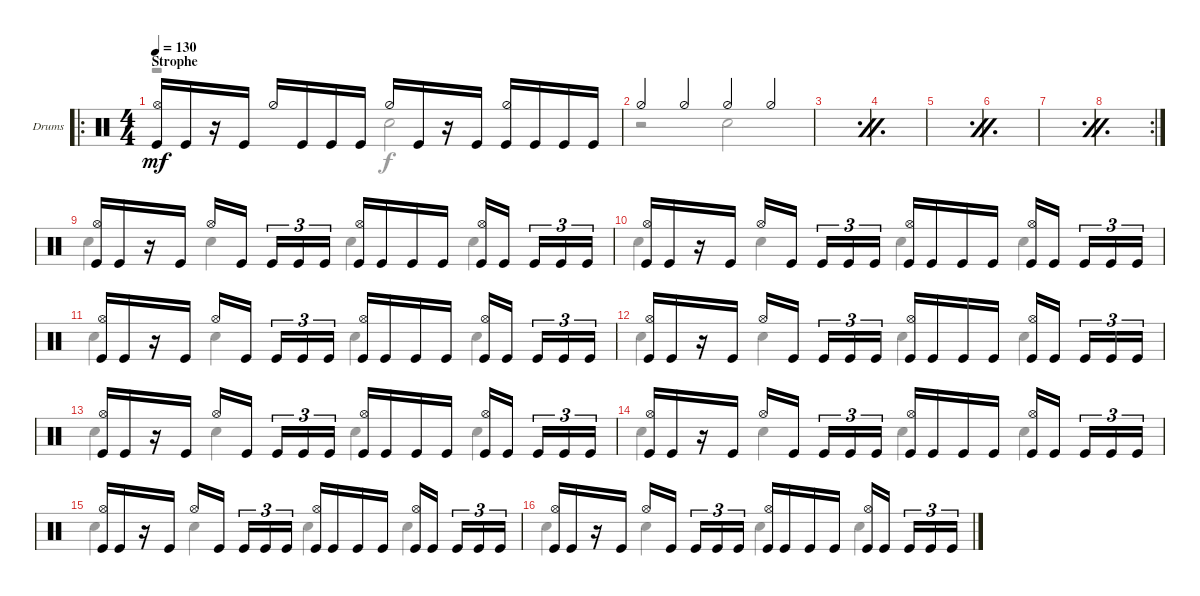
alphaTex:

\bracketExtendMode groupsimilarinstruments
\firstSystemTrackNameOrientation horizontal
\otherSystemsTrackNameOrientation horizontal
\track ("Drumkit" "Drums") {instrument percussion}
\staff {score}
\articulation defaults
\voice
\ro
\ts (4 4)
\section ("" "Strophe")
\tempo 130
\clef neutral
\ks c
("Kick (hit)" "Hi-Hat (open)").16{dy mf} "Kick (hit)".16 r.16 "Kick (hit)".16 "Hi-Hat (half)".16 "Kick (hit)".16 "Kick (hit)".16 "Kick (hit)".16 "Hi-Hat (half)".16 "Kick (hit)".16 r.16 "Kick (hit)".16 ("Kick (hit)" "Hi-Hat (half)").16 "Kick (hit)".16 "Kick (hit)".16 "Kick (hit)".16 |
"Hi-Hat (half)".4 "Hi-Hat (half)".4 "Hi-Hat (half)".4 "Hi-Hat (half)".4 |
\simile firstofdouble
|
\simile secondofdouble
|
\simile firstofdouble
|
\simile secondofdouble
|
\simile firstofdouble
|
\rc 2
\simile secondofdouble
|
\simile none
("Kick (hit)" "Hi-Hat (open)").16 "Kick (hit)".16 r.16 "Kick (hit)".16 "Hi-Hat (open)".16 "Kick (hit)".16 "Kick (hit)".16{tu (3 2)} "Kick (hit)".16{tu (3 2)} "Kick (hit)".16{tu (3 2)} ("Kick (hit)" "Hi-Hat (open)").16 "Kick (hit)".16 "Kick (hit)".16 "Kick (hit)".16 ("Kick (hit)" "Hi-Hat (open)").16 "Kick (hit)".16 "Kick (hit)".16{tu (3 2)} "Kick (hit)".16{tu (3 2)} "Kick (hit)".16{tu (3 2)} |
("Kick (hit)" "Hi-Hat (open)").16 "Kick (hit)".16 r.16 "Kick (hit)".16 "Hi-Hat (open)".16 "Kick (hit)".16 "Kick (hit)".16{tu (3 2)} "Kick (hit)".16{tu (3 2)} "Kick (hit)".16{tu (3 2)} ("Kick (hit)" "Hi-Hat (open)").16 "Kick (hit)".16 "Kick (hit)".16 "Kick (hit)".16 ("Kick (hit)" "Hi-Hat (open)").16 "Kick (hit)".16 "Kick (hit)".16{tu (3 2)} "Kick (hit)".16{tu (3 2)} "Kick (hit)".16{tu (3 2)} |
("Kick (hit)" "Hi-Hat (open)").16 "Kick (hit)".16 r.16 "Kick (hit)".16 "Hi-Hat (open)".16 "Kick (hit)".16 "Kick (hit)".16{tu (3 2)} "Kick (hit)".16{tu (3 2)} "Kick (hit)".16{tu (3 2)} ("Kick (hit)" "Hi-Hat (open)").16 "Kick (hit)".16 "Kick (hit)".16 "Kick (hit)".16 ("Kick (hit)" "Hi-Hat (open)").16 "Kick (hit)".16 "Kick (hit)".16{tu (3 2)} "Kick (hit)".16{tu (3 2)} "Kick (hit)".16{tu (3 2)} |
("Kick (hit)" "Hi-Hat (open)").16 "Kick (hit)".16 r.16 "Kick (hit)".16 "Hi-Hat (open)".16 "Kick (hit)".16 "Kick (hit)".16{tu (3 2)} "Kick (hit)".16{tu (3 2)} "Kick (hit)".16{tu (3 2)} ("Kick (hit)" "Hi-Hat (open)").16 "Kick (hit)".16 "Kick (hit)".16 "Kick (hit)".16 ("Kick (hit)" "Hi-Hat (open)").16 "Kick (hit)".16 "Kick (hit)".16{tu (3 2)} "Kick (hit)".16{tu (3 2)} "Kick (hit)".16{tu (3 2)} |
("Kick (hit)" "Hi-Hat (open)").16 "Kick (hit)".16 r.16 "Kick (hit)".16 "Hi-Hat (open)".16 "Kick (hit)".16 "Kick (hit)".16{tu (3 2)} "Kick (hit)".16{tu (3 2)} "Kick (hit)".16{tu (3 2)} ("Kick (hit)" "Hi-Hat (open)").16 "Kick (hit)".16 "Kick (hit)".16 "Kick (hit)".16 ("Kick (hit)" "Hi-Hat (open)").16 "Kick (hit)".16 "Kick (hit)".16{tu (3 2)} "Kick (hit)".16{tu (3 2)} "Kick (hit)".16{tu (3 2)} |
("Kick (hit)" "Hi-Hat (open)").16 "Kick (hit)".16 r.16 "Kick (hit)".16 "Hi-Hat (open)".16 "Kick (hit)".16 "Kick (hit)".16{tu (3 2)} "Kick (hit)".16{tu (3 2)} "Kick (hit)".16{tu (3 2)} ("Kick (hit)" "Hi-Hat (open)").16 "Kick (hit)".16 "Kick (hit)".16 "Kick (hit)".16 ("Kick (hit)" "Hi-Hat (open)").16 "Kick (hit)".16 "Kick (hit)".16{tu (3 2)} "Kick (hit)".16{tu (3 2)} "Kick (hit)".16{tu (3 2)} |
("Kick (hit)" "Hi-Hat (open)").16 "Kick (hit)".16 r.16 "Kick (hit)".16 "Hi-Hat (open)".16 "Kick (hit)".16 "Kick (hit)".16{tu (3 2)} "Kick (hit)".16{tu (3 2)} "Kick (hit)".16{tu (3 2)} ("Kick (hit)" "Hi-Hat (open)").16 "Kick (hit)".16 "Kick (hit)".16 "Kick (hit)".16 ("Kick (hit)" "Hi-Hat (open)").16 "Kick (hit)".16 "Kick (hit)".16{tu (3 2)} "Kick (hit)".16{tu (3 2)} "Kick (hit)".16{tu (3 2)} |
("Kick (hit)" "Hi-Hat (open)").16 "Kick (hit)".16 r.16 "Kick (hit)".16 "Hi-Hat (open)".16 "Kick (hit)".16 "Kick (hit)".16{tu (3 2)} "Kick (hit)".16{tu (3 2)} "Kick (hit)".16{tu (3 2)} ("Kick (hit)" "Hi-Hat (open)").16 "Kick (hit)".16 "Kick (hit)".16 "Kick (hit)".16 ("Kick (hit)" "Hi-Hat (open)").16 "Kick (hit)".16 "Kick (hit)".16{tu (3 2)} "Kick (hit)".16{tu (3 2)} "Kick (hit)".16{tu (3 2)}
\voice
\clef neutral
\ottava regular
\simile none
\ks c
r.2{dy f} "Snare (hit) 2".2 |
r.2 "Snare (hit) 2".2 |
\simile firstofdouble
|
\simile secondofdouble
|
\simile firstofdouble
|
\simile secondofdouble
|
\simile firstofdouble
|
\simile secondofdouble
|
\simile none "Snare (hit) 2".4 "Snare (hit) 2".4 "Snare (hit) 2".4 "Snare (hit) 2".4
|
"Snare (hit) 2".4 "Snare (hit) 2".4 "Snare (hit) 2".4 "Snare (hit) 2".4 |
"Snare (hit) 2".4 "Snare (hit) 2".4 "Snare (hit) 2".4 "Snare (hit) 2".4 |
"Snare (hit) 2".4 "Snare (hit) 2".4 "Snare (hit) 2".4 "Snare (hit) 2".4 |
"Snare (hit) 2".4 "Snare (hit) 2".4 "Snare (hit) 2".4 "Snare (hit) 2".4 |
"Snare (hit) 2".4 "Snare (hit) 2".4 "Snare (hit) 2".4 "Snare (hit) 2".4 |
"Snare (hit) 2".4 "Snare (hit) 2".4 "Snare (hit) 2".4 "Snare (hit) 2".4 |
"Snare (hit) 2".4 "Snare (hit) 2".4 "Snare (hit) 2".4 "Snare (hit) 2".4
